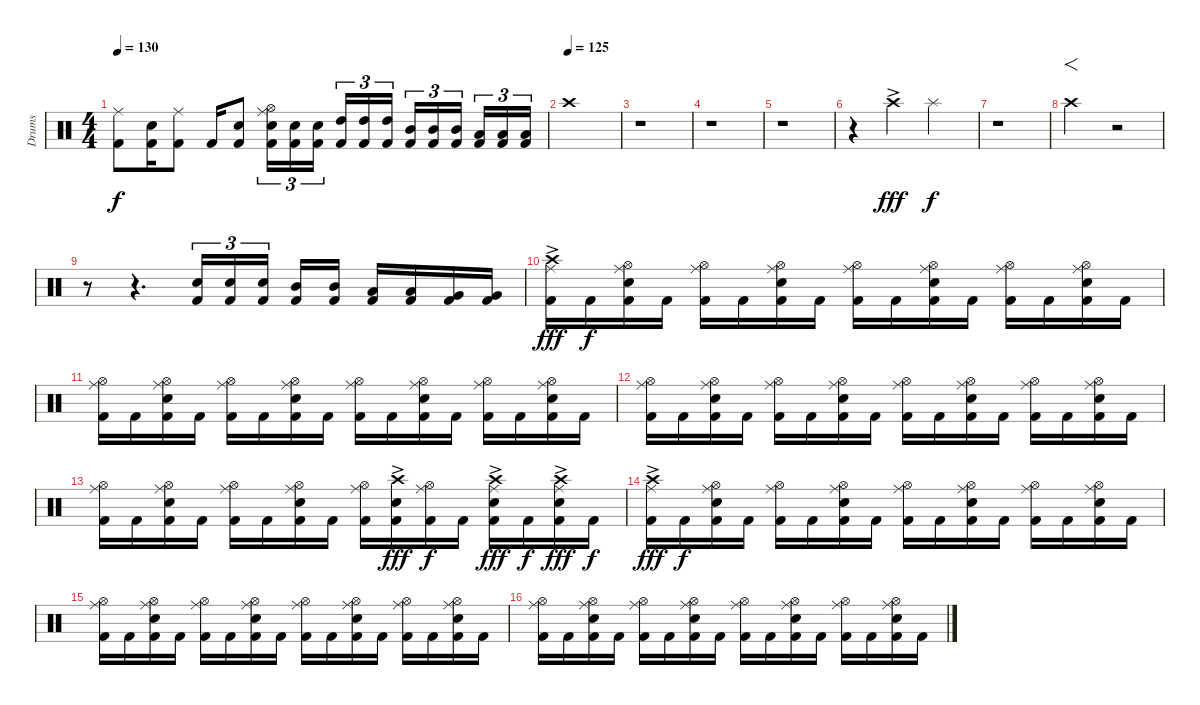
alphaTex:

\track ("Drums" "Drums") {instrument percussion}
\staff {score}
\articulation defaults
\ts (4 4)
\tempo 130
\clef neutral
\ks c
("Ride (middle)" "Kick (hit) 2").8{dy f} ("Snare (hit) 2" "Kick (hit) 2").16 ("Ride (middle)" "Kick (hit) 2").8 "Kick (hit) 2".16 ("Snare (hit) 2" "Kick (hit) 2").8 ("Hi-Hat (open)" "Ride (middle)" "Snare (hit) 2" "Kick (hit) 2").16{tu (3 2)} ("Snare (hit) 2" "Kick (hit) 2").16{tu (3 2)} ("Snare (hit) 2" "Kick (hit) 2").16{tu (3 2)} ("High Tom (hit)" "Kick (hit) 2").16{tu (3 2)} ("High Tom (hit)" "Kick (hit) 2").16{tu (3 2)} ("High Tom (hit)" "Kick (hit) 2").16{tu (3 2)} ("Mid Tom (hit)" "Kick (hit) 2").16{tu (3 2)} ("Mid Tom (hit)" "Kick (hit) 2").16{tu (3 2)} ("Mid Tom (hit)" "Kick (hit) 2").16{tu (3 2)} ("Low Tom (hit)" "Kick (hit) 2").16{tu (3 2)} ("Low Tom (hit)" "Kick (hit) 2").16{tu (3 2)} ("Low Tom (hit)" "Kick (hit) 2").16{tu (3 2)} |
\tempo (125)
"Crash high (hit)".1 |
r.1 |
r.1 |
r.1 |
r.4 "Crash high (hit)"{ac}.4{dy fff} "Splash (hit)".2{dy f} |
r.1 |
"Crash high (hit)".2{f} r.2 |
r.8 r.4{d} ("Snare (hit) 2" "Kick (hit) 2").16{tu (3 2)} ("Snare (hit) 2" "Kick (hit) 2").16{tu (3 2)} ("Snare (hit) 2" "Kick (hit) 2").16{tu (3 2)} ("Mid Tom (hit)" "Kick (hit) 2").16 ("Mid Tom (hit)" "Kick (hit) 2").16 ("Low Tom (hit)" "Kick (hit) 2").16 ("Low Tom (hit)" "Kick (hit) 2").16 ("Very Low Tom (hit)" "Kick (hit) 2").16 ("Very Low Tom (hit)" "Kick (hit) 2").16 |
("Crash high (hit)"{ac} "Ride (middle)" "Kick (hit) 2").16{dy fff} "Kick (hit) 2".16{dy f} ("Hi-Hat (open)" "Ride (middle)" "Snare (hit) 2" "Kick (hit) 2").16 "Kick (hit) 2".16 ("Hi-Hat (open)" "Ride (middle)" "Kick (hit) 2").16 "Kick (hit) 2".16 ("Hi-Hat (open)" "Ride (middle)" "Snare (hit) 2" "Kick (hit) 2").16 "Kick (hit) 2".16 ("Hi-Hat (open)" "Ride (middle)" "Kick (hit) 2").16 "Kick (hit) 2".16 ("Hi-Hat (open)" "Ride (middle)" "Snare (hit) 2" "Kick (hit) 2").16 "Kick (hit) 2".16 ("Hi-Hat (open)" "Ride (middle)" "Kick (hit) 2").16 "Kick (hit) 2".16 ("Hi-Hat (open)" "Ride (middle)" "Snare (hit) 2" "Kick (hit) 2").16 "Kick (hit) 2".16 |
("Hi-Hat (open)" "Ride (middle)" "Kick (hit) 2").16 "Kick (hit) 2".16 ("Hi-Hat (open)" "Ride (middle)" "Snare (hit) 2" "Kick (hit) 2").16 "Kick (hit) 2".16 ("Hi-Hat (open)" "Ride (middle)" "Kick (hit) 2").16 "Kick (hit) 2".16 ("Hi-Hat (open)" "Ride (middle)" "Snare (hit) 2" "Kick (hit) 2").16 "Kick (hit) 2".16 ("Hi-Hat (open)" "Ride (middle)" "Kick (hit) 2").16 "Kick (hit) 2".16 ("Hi-Hat (open)" "Ride (middle)" "Snare (hit) 2" "Kick (hit) 2").16 "Kick (hit) 2".16 ("Hi-Hat (open)" "Ride (middle)" "Kick (hit) 2").16 "Kick (hit) 2".16 ("Hi-Hat (open)" "Ride (middle)" "Snare (hit) 2" "Kick (hit) 2").16 "Kick (hit) 2".16 |
("Hi-Hat (open)" "Ride (middle)" "Kick (hit) 2").16 "Kick (hit) 2".16 ("Hi-Hat (open)" "Ride (middle)" "Snare (hit) 2" "Kick (hit) 2").16 "Kick (hit) 2".16 ("Hi-Hat (open)" "Ride (middle)" "Kick (hit) 2").16 "Kick (hit) 2".16 ("Hi-Hat (open)" "Ride (middle)" "Snare (hit) 2" "Kick (hit) 2").16 "Kick (hit) 2".16 ("Hi-Hat (open)" "Ride (middle)" "Kick (hit) 2").16 "Kick (hit) 2".16 ("Hi-Hat (open)" "Ride (middle)" "Snare (hit) 2" "Kick (hit) 2").16 "Kick (hit) 2".16 ("Hi-Hat (open)" "Ride (middle)" "Kick (hit) 2").16 "Kick (hit) 2".16 ("Hi-Hat (open)" "Ride (middle)" "Snare (hit) 2" "Kick (hit) 2").16 "Kick (hit) 2".16 |
("Hi-Hat (open)" "Ride (middle)" "Kick (hit) 2").16 "Kick (hit) 2".16 ("Hi-Hat (open)" "Ride (middle)" "Snare (hit) 2" "Kick (hit) 2").16 "Kick (hit) 2".16 ("Hi-Hat (open)" "Ride (middle)" "Kick (hit) 2").16 "Kick (hit) 2".16 ("Hi-Hat (open)" "Ride (middle)" "Snare (hit) 2" "Kick (hit) 2").16 "Kick (hit) 2".16 ("Hi-Hat (open)" "Ride (middle)" "Kick (hit) 2").16 ("Crash high (hit)"{ac} "Snare (hit) 2" "Kick (hit) 2").16{dy fff} ("Hi-Hat (open)" "Ride (middle)" "Kick (hit) 2").16{dy f} "Kick (hit) 2".16 ("Crash high (hit)"{ac} "Ride (middle)" "Snare (hit) 2" "Kick (hit) 2").16{dy fff} "Kick (hit) 2".16{dy f} ("Crash high (hit)"{ac} "Ride (middle)" "Snare (hit) 2" "Kick (hit) 2").16{dy fff} "Kick (hit) 2".16{dy f} |
("Crash high (hit)"{ac} "Ride (middle)" "Kick (hit) 2").16{dy fff} "Kick (hit) 2".16{dy f} ("Hi-Hat (open)" "Ride (middle)" "Snare (hit) 2" "Kick (hit) 2").16 "Kick (hit) 2".16 ("Hi-Hat (open)" "Ride (middle)" "Kick (hit) 2").16 "Kick (hit) 2".16 ("Hi-Hat (open)" "Ride (middle)" "Snare (hit) 2" "Kick (hit) 2").16 "Kick (hit) 2".16 ("Hi-Hat (open)" "Ride (middle)" "Kick (hit) 2").16 "Kick (hit) 2".16 ("Hi-Hat (open)" "Ride (middle)" "Snare (hit) 2" "Kick (hit) 2").16 "Kick (hit) 2".16 ("Hi-Hat (open)" "Ride (middle)" "Kick (hit) 2").16 "Kick (hit) 2".16 ("Hi-Hat (open)" "Ride (middle)" "Snare (hit) 2" "Kick (hit) 2").16 "Kick (hit) 2".16 |
("Hi-Hat (open)" "Ride (middle)" "Kick (hit) 2").16 "Kick (hit) 2".16 ("Hi-Hat (open)" "Ride (middle)" "Snare (hit) 2" "Kick (hit) 2").16 "Kick (hit) 2".16 ("Hi-Hat (open)" "Ride (middle)" "Kick (hit) 2").16 "Kick (hit) 2".16 ("Hi-Hat (open)" "Ride (middle)" "Snare (hit) 2" "Kick (hit) 2").16 "Kick (hit) 2".16 ("Hi-Hat (open)" "Ride (middle)" "Kick (hit) 2").16 "Kick (hit) 2".16 ("Hi-Hat (open)" "Ride (middle)" "Snare (hit) 2" "Kick (hit) 2").16 "Kick (hit) 2".16 ("Hi-Hat (open)" "Ride (middle)" "Kick (hit) 2").16 "Kick (hit) 2".16 ("Hi-Hat (open)" "Ride (middle)" "Snare (hit) 2" "Kick (hit) 2").16 "Kick (hit) 2".16 |
("Hi-Hat (open)" "Ride (middle)" "Kick (hit) 2").16 "Kick (hit) 2".16 ("Hi-Hat (open)" "Ride (middle)" "Snare (hit) 2" "Kick (hit) 2").16 "Kick (hit) 2".16 ("Hi-Hat (open)" "Ride (middle)" "Kick (hit) 2").16 "Kick (hit) 2".16 ("Hi-Hat (open)" "Ride (middle)" "Snare (hit) 2" "Kick (hit) 2").16 "Kick (hit) 2".16 ("Hi-Hat (open)" "Ride (middle)" "Kick (hit) 2").16 "Kick (hit) 2".16 ("Hi-Hat (open)" "Ride (middle)" "Snare (hit) 2" "Kick (hit) 2").16 "Kick (hit) 2".16 ("Hi-Hat (open)" "Ride (middle)" "Kick (hit) 2").16 "Kick (hit) 2".16 ("Hi-Hat (open)" "Ride (middle)" "Snare (hit) 2" "Kick (hit) 2").16 "Kick (hit) 2".16
